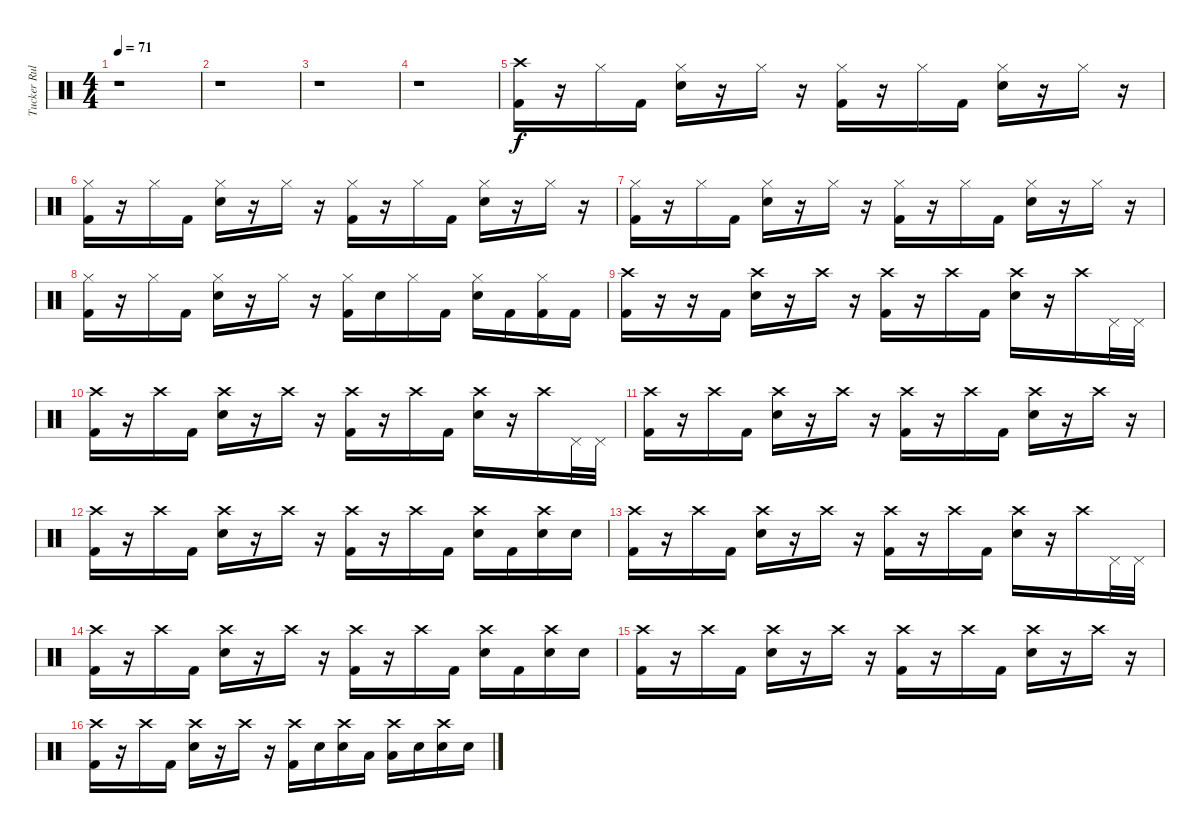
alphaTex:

\track ("Tucker Rule (Drums)" "Tucker Rul") {instrument percussion}
\staff {score}
\articulation defaults
\ts (4 4)
\tempo 71
\clef neutral
\ks c
r.1{dy f} |
r.1 |
r.1 |
r.1 |
("Crash high (hit)" "Kick (hit) 2").16 r.16 "Hi-Hat (closed)".16 "Kick (hit) 2".16 ("Hi-Hat (closed)" "Electric Snare (hit)").16 r.16 "Hi-Hat (closed)".16 r.16 ("Hi-Hat (closed)" "Kick (hit) 2").16 r.16 "Hi-Hat (closed)".16 "Kick (hit) 2".16 ("Hi-Hat (closed)" "Electric Snare (hit)").16 r.16 "Hi-Hat (closed)".16 r.16 |
("Hi-Hat (closed)" "Kick (hit) 2").16 r.16 "Hi-Hat (closed)".16 "Kick (hit) 2".16 ("Hi-Hat (closed)" "Electric Snare (hit)").16 r.16 "Hi-Hat (closed)".16 r.16 ("Hi-Hat (closed)" "Kick (hit) 2").16 r.16 "Hi-Hat (closed)".16 "Kick (hit) 2".16 ("Hi-Hat (closed)" "Electric Snare (hit)").16 r.16 "Hi-Hat (closed)".16 r.16 |
("Hi-Hat (closed)" "Kick (hit) 2").16 r.16 "Hi-Hat (closed)".16 "Kick (hit) 2".16 ("Hi-Hat (closed)" "Electric Snare (hit)").16 r.16 "Hi-Hat (closed)".16 r.16 ("Hi-Hat (closed)" "Kick (hit) 2").16 r.16 "Hi-Hat (closed)".16 "Kick (hit) 2".16 ("Hi-Hat (closed)" "Electric Snare (hit)").16 r.16 "Hi-Hat (closed)".16 r.16 |
("Hi-Hat (closed)" "Kick (hit) 2").16 r.16 "Hi-Hat (closed)".16 "Kick (hit) 2".16 ("Hi-Hat (closed)" "Electric Snare (hit)").16 r.16 "Hi-Hat (closed)".16 r.16 ("Hi-Hat (closed)" "Kick (hit) 2").16 "Electric Snare (hit)".16 "Hi-Hat (closed)".16 "Kick (hit) 2".16 ("Hi-Hat (closed)" "Electric Snare (hit)").16 "Kick (hit) 2".16 ("Hi-Hat (closed)" "Kick (hit) 2").16 "Kick (hit) 2".16 |
("Crash high (hit)" "Kick (hit) 2").16 r.16 r.16 "Kick (hit) 2".16 ("Crash high (hit)" "Electric Snare (hit)").16 r.16 "Crash high (hit)".16 r.16 ("Crash high (hit)" "Kick (hit) 2").16 r.16 "Crash high (hit)".16 "Kick (hit) 2".16 ("Crash high (hit)" "Electric Snare (hit)").16 r.16 "Crash high (hit)".16 "Pedal Hi-Hat (hit)".32 "Pedal Hi-Hat (hit)".32 |
("Crash high (hit)" "Kick (hit) 2").16 r.16 "Crash high (hit)".16 "Kick (hit) 2".16 ("Crash high (hit)" "Electric Snare (hit)").16 r.16 "Crash high (hit)".16 r.16 ("Crash high (hit)" "Kick (hit) 2").16 r.16 "Crash high (hit)".16 "Kick (hit) 2".16 ("Crash high (hit)" "Electric Snare (hit)").16 r.16 "Crash high (hit)".16 "Pedal Hi-Hat (hit)".32 "Pedal Hi-Hat (hit)".32 |
("Crash high (hit)" "Kick (hit) 2").16 r.16 "Crash high (hit)".16 "Kick (hit) 2".16 ("Crash high (hit)" "Electric Snare (hit)").16 r.16 "Crash high (hit)".16 r.16 ("Crash high (hit)" "Kick (hit) 2").16 r.16 "Crash high (hit)".16 "Kick (hit) 2".16 ("Crash high (hit)" "Electric Snare (hit)").16 r.16 "Crash high (hit)".16 r.16 |
("Crash high (hit)" "Kick (hit) 2").16 r.16 "Crash high (hit)".16 "Kick (hit) 2".16 ("Crash high (hit)" "Electric Snare (hit)").16 r.16 "Crash high (hit)".16 r.16 ("Crash high (hit)" "Kick (hit) 2").16 r.16 "Crash high (hit)".16 "Kick (hit) 2".16 ("Crash high (hit)" "Electric Snare (hit)").16 "Kick (hit) 2".16 ("Crash high (hit)" "Electric Snare (hit)").16 "Electric Snare (hit)".16 |
("Crash high (hit)" "Kick (hit) 2").16 r.16 "Crash high (hit)".16 "Kick (hit) 2".16 ("Crash high (hit)" "Electric Snare (hit)").16 r.16 "Crash high (hit)".16 r.16 ("Crash high (hit)" "Kick (hit) 2").16 r.16 "Crash high (hit)".16 "Kick (hit) 2".16 ("Crash high (hit)" "Electric Snare (hit)").16 r.16 "Crash high (hit)".16 "Pedal Hi-Hat (hit)".32 "Pedal Hi-Hat (hit)".32 |
("Crash high (hit)" "Kick (hit) 2").16 r.16 "Crash high (hit)".16 "Kick (hit) 2".16 ("Crash high (hit)" "Electric Snare (hit)").16 r.16 "Crash high (hit)".16 r.16 ("Crash high (hit)" "Kick (hit) 2").16 r.16 "Crash high (hit)".16 "Kick (hit) 2".16 ("Crash high (hit)" "Electric Snare (hit)").16 "Kick (hit) 2".16 ("Crash high (hit)" "Electric Snare (hit)").16 "Electric Snare (hit)".16 |
("Crash high (hit)" "Kick (hit) 2").16 r.16 "Crash high (hit)".16 "Kick (hit) 2".16 ("Crash high (hit)" "Electric Snare (hit)").16 r.16 "Crash high (hit)".16 r.16 ("Crash high (hit)" "Kick (hit) 2").16 r.16 "Crash high (hit)".16 "Kick (hit) 2".16 ("Crash high (hit)" "Electric Snare (hit)").16 r.16 "Crash high (hit)".16 r.16 |
("Crash high (hit)" "Kick (hit) 2").16 r.16 "Crash high (hit)".16 "Kick (hit) 2".16 ("Crash high (hit)" "Electric Snare (hit)").16 r.16 "Crash high (hit)".16 r.16 ("Crash high (hit)" "Kick (hit) 2").16 "Electric Snare (hit)".16 ("Crash high (hit)" "Electric Snare (hit)").16 "Low Tom (hit)".16 ("Crash high (hit)" "Low Tom (hit)").16 "Electric Snare (hit)".16 ("Crash high (hit)" "Electric Snare (hit)").16 "Electric Snare (hit)".16
